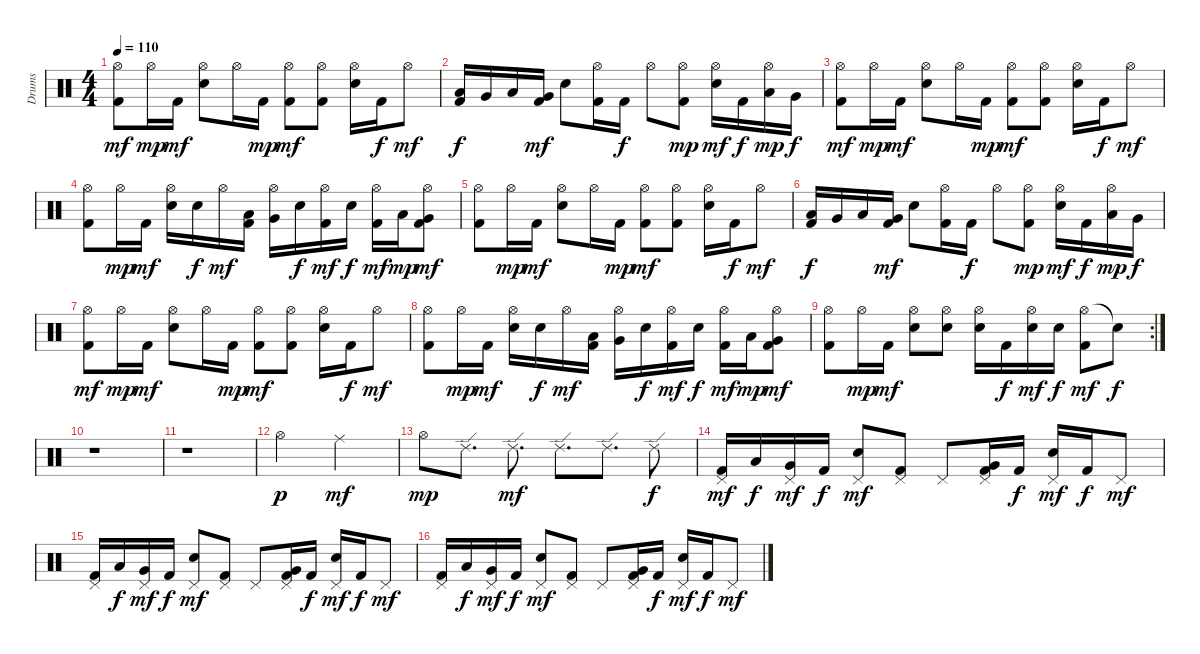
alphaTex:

\track ("Drums" "Drums") {instrument percussion}
\staff {score}
\articulation defaults
\ts (4 4)
\tempo 110
\clef neutral
\ks c
("Hi-Hat (open)" "Kick (hit) 2").8{dy mf} "Hi-Hat (open)".16{dy mp} "Kick (hit) 2".16{dy mf} ("Hi-Hat (open)" "Electric Snare (hit)").8 "Hi-Hat (open)".16 "Kick (hit) 2".16{dy mp} ("Hi-Hat (open)" "Kick (hit) 2").8{dy mf} ("Hi-Hat (open)" "Kick (hit) 2").8 ("Hi-Hat (open)" "Electric Snare (hit)").16 "Kick (hit) 2".16{dy f} "Hi-Hat (open)".8{dy mf} |
("Low Tom (hit)" "Kick (hit) 2").16{dy f} "Very Low Tom (hit)".16 "Low Tom (hit)".16 ("Very Low Tom (hit)" "Kick (hit) 2").16{dy mf} "Electric Snare (hit)".8 ("Hi-Hat (open)" "Kick (hit) 2").16 "Kick (hit) 2".16{dy f} "Hi-Hat (open)".8 ("Hi-Hat (open)" "Kick (hit) 2").8{dy mp} ("Hi-Hat (open)" "Electric Snare (hit)").16{dy mf} "Kick (hit) 2".16{dy f} ("Hi-Hat (open)" "Low Tom (hit)").16{dy mp} "Very Low Tom (hit)".16{dy f} |
("Hi-Hat (open)" "Kick (hit) 2").8{dy mf} "Hi-Hat (open)".16{dy mp} "Kick (hit) 2".16{dy mf} ("Hi-Hat (open)" "Electric Snare (hit)").8 "Hi-Hat (open)".16 "Kick (hit) 2".16{dy mp} ("Hi-Hat (open)" "Kick (hit) 2").8{dy mf} ("Hi-Hat (open)" "Kick (hit) 2").8 ("Hi-Hat (open)" "Electric Snare (hit)").16 "Kick (hit) 2".16{dy f} "Hi-Hat (open)".8{dy mf} |
("Hi-Hat (open)" "Kick (hit) 2").8 "Hi-Hat (open)".16{dy mp} "Kick (hit) 2".16{dy mf} ("Hi-Hat (open)" "Electric Snare (hit)").16 "Electric Snare (hit)".16{dy f} "Hi-Hat (open)".16{dy mf} ("Low Tom (hit)" "Kick (hit) 2").16 ("Hi-Hat (open)" "Very Low Tom (hit)").16 "Electric Snare (hit)".16{dy f} ("Hi-Hat (open)" "Kick (hit) 2").16{dy mf} "Electric Snare (hit)".16{dy f} ("Hi-Hat (open)" "Kick (hit) 2").16{dy mf} "Low Tom (hit)".16{dy mp} ("Hi-Hat (open)" "Very Low Tom (hit)" "Kick (hit) 2").8{dy mf} |
("Hi-Hat (open)" "Kick (hit) 2").8 "Hi-Hat (open)".16{dy mp} "Kick (hit) 2".16{dy mf} ("Hi-Hat (open)" "Electric Snare (hit)").8 "Hi-Hat (open)".16 "Kick (hit) 2".16{dy mp} ("Hi-Hat (open)" "Kick (hit) 2").8{dy mf} ("Hi-Hat (open)" "Kick (hit) 2").8 ("Hi-Hat (open)" "Electric Snare (hit)").16 "Kick (hit) 2".16{dy f} "Hi-Hat (open)".8{dy mf} |
("Low Tom (hit)" "Kick (hit) 2").16{dy f} "Very Low Tom (hit)".16 "Low Tom (hit)".16 ("Very Low Tom (hit)" "Kick (hit) 2").16{dy mf} "Electric Snare (hit)".8 ("Hi-Hat (open)" "Kick (hit) 2").16 "Kick (hit) 2".16{dy f} "Hi-Hat (open)".8 ("Hi-Hat (open)" "Kick (hit) 2").8{dy mp} ("Hi-Hat (open)" "Electric Snare (hit)").16{dy mf} "Kick (hit) 2".16{dy f} ("Hi-Hat (open)" "Low Tom (hit)").16{dy mp} "Very Low Tom (hit)".16{dy f} |
("Hi-Hat (open)" "Kick (hit) 2").8{dy mf} "Hi-Hat (open)".16{dy mp} "Kick (hit) 2".16{dy mf} ("Hi-Hat (open)" "Electric Snare (hit)").8 "Hi-Hat (open)".16 "Kick (hit) 2".16{dy mp} ("Hi-Hat (open)" "Kick (hit) 2").8{dy mf} ("Hi-Hat (open)" "Kick (hit) 2").8 ("Hi-Hat (open)" "Electric Snare (hit)").16 "Kick (hit) 2".16{dy f} "Hi-Hat (open)".8{dy mf} |
("Hi-Hat (open)" "Kick (hit) 2").8 "Hi-Hat (open)".16{dy mp} "Kick (hit) 2".16{dy mf} ("Hi-Hat (open)" "Electric Snare (hit)").16 "Electric Snare (hit)".16{dy f} "Hi-Hat (open)".16{dy mf} ("Low Tom (hit)" "Kick (hit) 2").16 ("Hi-Hat (open)" "Very Low Tom (hit)").16 "Electric Snare (hit)".16{dy f} ("Hi-Hat (open)" "Kick (hit) 2").16{dy mf} "Electric Snare (hit)".16{dy f} ("Hi-Hat (open)" "Kick (hit) 2").16{dy mf} "Low Tom (hit)".16{dy mp} ("Hi-Hat (open)" "Very Low Tom (hit)" "Kick (hit) 2").8{dy mf} |
\rc 2
("Hi-Hat (open)" "Kick (hit) 2").8 "Hi-Hat (open)".16{dy mp} "Kick (hit) 2".16{dy mf} ("Hi-Hat (open)" "Electric Snare (hit)").8 ("Hi-Hat (open)" "Electric Snare (hit)").8 ("Hi-Hat (open)" "Electric Snare (hit)").16 "Kick (hit) 2".16{dy f} ("Hi-Hat (open)" "Electric Snare (hit)").16{dy mf} "Electric Snare (hit)".16{dy f} ("Hi-Hat (open)" "Kick (hit) 2").8{dy mf} "Snare (hit)"{t}.8{dy f} |
r.1 |
r.1 |
"Hi-Hat (open)".2{dy p} "Ride (middle)".2{dy mf} |
"Hi-Hat (open)".8{dy mp} "Ride (edge) 2".8{d} "Ride (edge) 2".8{d dy mf} "Ride (edge) 2".8{d} "Ride (edge) 2".8{d} "Ride (edge) 2".8{dy f} |
("Pedal Hi-Hat (hit)" "Kick (hit) 2").16{dy mf} "Low Tom (hit)".16{dy f} ("Pedal Hi-Hat (hit)" "Very Low Tom (hit)").16{dy mf} "Kick (hit) 2".16{dy f} ("Pedal Hi-Hat (hit)" "Electric Snare (hit)").8{dy mf} ("Pedal Hi-Hat (hit)" "Kick (hit) 2").8 "Pedal Hi-Hat (hit)".8 ("Pedal Hi-Hat (hit)" "Very Low Tom (hit)" "Kick (hit) 2").16 "Kick (hit) 2".16{dy f} ("Pedal Hi-Hat (hit)" "Electric Snare (hit)").16{dy mf} "Kick (hit) 2".16{dy f} "Pedal Hi-Hat (hit)".8{dy mf} |
("Pedal Hi-Hat (hit)" "Kick (hit) 2").16 "Low Tom (hit)".16{dy f} ("Pedal Hi-Hat (hit)" "Very Low Tom (hit)").16{dy mf} "Kick (hit) 2".16{dy f} ("Pedal Hi-Hat (hit)" "Electric Snare (hit)").8{dy mf} ("Pedal Hi-Hat (hit)" "Kick (hit) 2").8 "Pedal Hi-Hat (hit)".8 ("Pedal Hi-Hat (hit)" "Very Low Tom (hit)" "Kick (hit) 2").16 "Kick (hit) 2".16{dy f} ("Pedal Hi-Hat (hit)" "Electric Snare (hit)").16{dy mf} "Kick (hit) 2".16{dy f} "Pedal Hi-Hat (hit)".8{dy mf} |
("Pedal Hi-Hat (hit)" "Kick (hit) 2").16 "Low Tom (hit)".16{dy f} ("Pedal Hi-Hat (hit)" "Very Low Tom (hit)").16{dy mf} "Kick (hit) 2".16{dy f} ("Pedal Hi-Hat (hit)" "Electric Snare (hit)").8{dy mf} ("Pedal Hi-Hat (hit)" "Kick (hit) 2").8 "Pedal Hi-Hat (hit)".8 ("Pedal Hi-Hat (hit)" "Very Low Tom (hit)" "Kick (hit) 2").16 "Kick (hit) 2".16{dy f} ("Pedal Hi-Hat (hit)" "Electric Snare (hit)").16{dy mf} "Kick (hit) 2".16{dy f} "Pedal Hi-Hat (hit)".8{dy mf}
